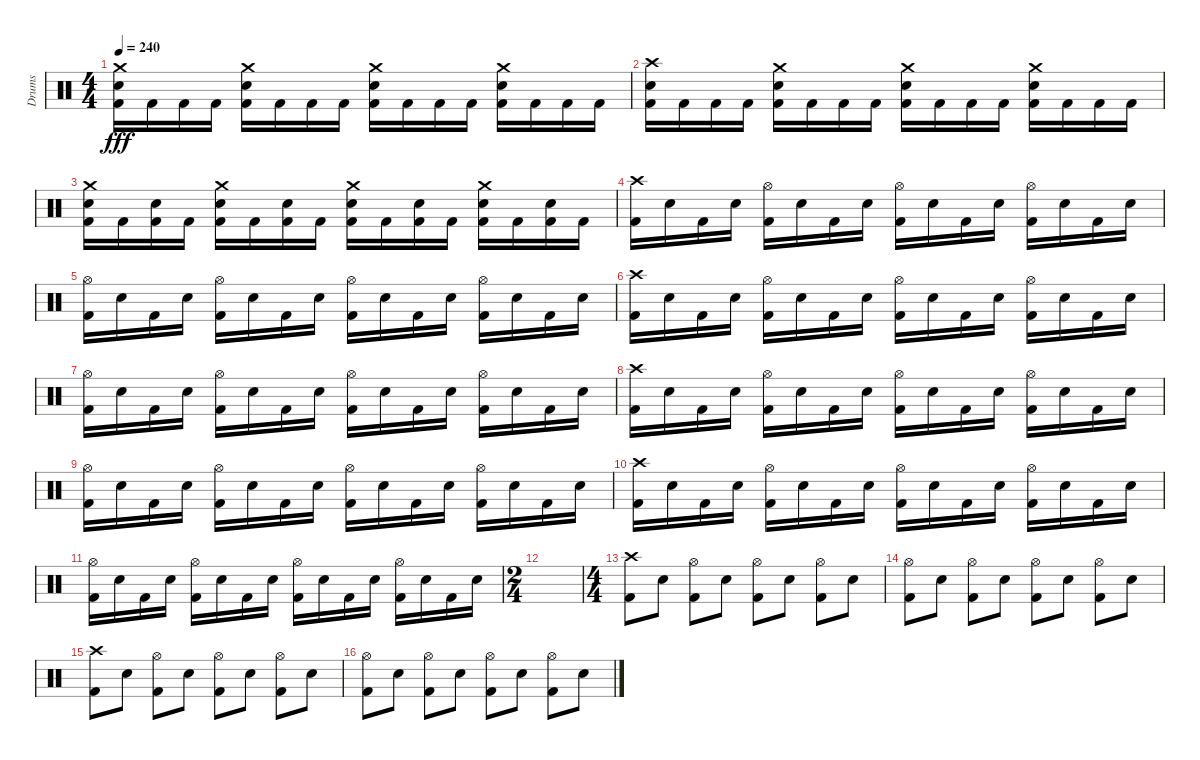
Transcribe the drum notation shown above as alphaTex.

\track ("Drums" "Drums") {instrument percussion}
\staff {score}
\articulation defaults
\ts (4 4)
\tempo 240
\clef neutral
\ks c
("Crash medium (hit)" "Electric Snare (hit)" "Kick (hit) 2").16{dy fff} "Kick (hit) 2".16 "Kick (hit) 2".16 "Kick (hit) 2".16 ("Crash medium (hit)" "Electric Snare (hit)" "Kick (hit) 2").16 "Kick (hit) 2".16 "Kick (hit) 2".16 "Kick (hit) 2".16 ("Crash medium (hit)" "Electric Snare (hit)" "Kick (hit) 2").16 "Kick (hit) 2".16 "Kick (hit) 2".16 "Kick (hit) 2".16 ("Crash medium (hit)" "Electric Snare (hit)" "Kick (hit) 2").16 "Kick (hit) 2".16 "Kick (hit) 2".16 "Kick (hit) 2".16 |
("Crash high (hit)" "Electric Snare (hit)" "Kick (hit) 2").16 "Kick (hit) 2".16 "Kick (hit) 2".16 "Kick (hit) 2".16 ("Crash medium (hit)" "Electric Snare (hit)" "Kick (hit) 2").16 "Kick (hit) 2".16 "Kick (hit) 2".16 "Kick (hit) 2".16 ("Crash medium (hit)" "Electric Snare (hit)" "Kick (hit) 2").16 "Kick (hit) 2".16 "Kick (hit) 2".16 "Kick (hit) 2".16 ("Crash medium (hit)" "Electric Snare (hit)" "Kick (hit) 2").16 "Kick (hit) 2".16 "Kick (hit) 2".16 "Kick (hit) 2".16 |
("Crash medium (hit)" "Electric Snare (hit)" "Kick (hit) 2").16 "Kick (hit) 2".16 ("Electric Snare (hit)" "Kick (hit) 2").16 "Kick (hit) 2".16 ("Crash medium (hit)" "Electric Snare (hit)" "Kick (hit) 2").16 "Kick (hit) 2".16 ("Electric Snare (hit)" "Kick (hit) 2").16 "Kick (hit) 2".16 ("Crash medium (hit)" "Electric Snare (hit)" "Kick (hit) 2").16 "Kick (hit) 2".16 ("Electric Snare (hit)" "Kick (hit) 2").16 "Kick (hit) 2".16 ("Crash medium (hit)" "Electric Snare (hit)" "Kick (hit) 2").16 "Kick (hit) 2".16 ("Electric Snare (hit)" "Kick (hit) 2").16 "Kick (hit) 2".16 |
("Crash high (hit)" "Kick (hit) 2").16 "Electric Snare (hit)".16 "Kick (hit) 2".16 "Electric Snare (hit)".16 ("Hi-Hat (open)" "Kick (hit) 2").16 "Electric Snare (hit)".16 "Kick (hit) 2".16 "Electric Snare (hit)".16 ("Hi-Hat (open)" "Kick (hit) 2").16 "Electric Snare (hit)".16 "Kick (hit) 2".16 "Electric Snare (hit)".16 ("Hi-Hat (open)" "Kick (hit) 2").16 "Electric Snare (hit)".16 "Kick (hit) 2".16 "Electric Snare (hit)".16 |
("Hi-Hat (open)" "Kick (hit) 2").16 "Electric Snare (hit)".16 "Kick (hit) 2".16 "Electric Snare (hit)".16 ("Hi-Hat (open)" "Kick (hit) 2").16 "Electric Snare (hit)".16 "Kick (hit) 2".16 "Electric Snare (hit)".16 ("Hi-Hat (open)" "Kick (hit) 2").16 "Electric Snare (hit)".16 "Kick (hit) 2".16 "Electric Snare (hit)".16 ("Hi-Hat (open)" "Kick (hit) 2").16 "Electric Snare (hit)".16 "Kick (hit) 2".16 "Electric Snare (hit)".16 |
("Crash high (hit)" "Kick (hit) 2").16 "Electric Snare (hit)".16 "Kick (hit) 2".16 "Electric Snare (hit)".16 ("Hi-Hat (open)" "Kick (hit) 2").16 "Electric Snare (hit)".16 "Kick (hit) 2".16 "Electric Snare (hit)".16 ("Hi-Hat (open)" "Kick (hit) 2").16 "Electric Snare (hit)".16 "Kick (hit) 2".16 "Electric Snare (hit)".16 ("Hi-Hat (open)" "Kick (hit) 2").16 "Electric Snare (hit)".16 "Kick (hit) 2".16 "Electric Snare (hit)".16 |
("Hi-Hat (open)" "Kick (hit) 2").16 "Electric Snare (hit)".16 "Kick (hit) 2".16 "Electric Snare (hit)".16 ("Hi-Hat (open)" "Kick (hit) 2").16 "Electric Snare (hit)".16 "Kick (hit) 2".16 "Electric Snare (hit)".16 ("Hi-Hat (open)" "Kick (hit) 2").16 "Electric Snare (hit)".16 "Kick (hit) 2".16 "Electric Snare (hit)".16 ("Hi-Hat (open)" "Kick (hit) 2").16 "Electric Snare (hit)".16 "Kick (hit) 2".16 "Electric Snare (hit)".16 |
("Crash high (hit)" "Kick (hit) 2").16 "Electric Snare (hit)".16 "Kick (hit) 2".16 "Electric Snare (hit)".16 ("Hi-Hat (open)" "Kick (hit) 2").16 "Electric Snare (hit)".16 "Kick (hit) 2".16 "Electric Snare (hit)".16 ("Hi-Hat (open)" "Kick (hit) 2").16 "Electric Snare (hit)".16 "Kick (hit) 2".16 "Electric Snare (hit)".16 ("Hi-Hat (open)" "Kick (hit) 2").16 "Electric Snare (hit)".16 "Kick (hit) 2".16 "Electric Snare (hit)".16 |
("Hi-Hat (open)" "Kick (hit) 2").16 "Electric Snare (hit)".16 "Kick (hit) 2".16 "Electric Snare (hit)".16 ("Hi-Hat (open)" "Kick (hit) 2").16 "Electric Snare (hit)".16 "Kick (hit) 2".16 "Electric Snare (hit)".16 ("Hi-Hat (open)" "Kick (hit) 2").16 "Electric Snare (hit)".16 "Kick (hit) 2".16 "Electric Snare (hit)".16 ("Hi-Hat (open)" "Kick (hit) 2").16 "Electric Snare (hit)".16 "Kick (hit) 2".16 "Electric Snare (hit)".16 |
("Crash high (hit)" "Kick (hit) 2").16 "Electric Snare (hit)".16 "Kick (hit) 2".16 "Electric Snare (hit)".16 ("Hi-Hat (open)" "Kick (hit) 2").16 "Electric Snare (hit)".16 "Kick (hit) 2".16 "Electric Snare (hit)".16 ("Hi-Hat (open)" "Kick (hit) 2").16 "Electric Snare (hit)".16 "Kick (hit) 2".16 "Electric Snare (hit)".16 ("Hi-Hat (open)" "Kick (hit) 2").16 "Electric Snare (hit)".16 "Kick (hit) 2".16 "Electric Snare (hit)".16 |
("Hi-Hat (open)" "Kick (hit) 2").16 "Electric Snare (hit)".16 "Kick (hit) 2".16 "Electric Snare (hit)".16 ("Hi-Hat (open)" "Kick (hit) 2").16 "Electric Snare (hit)".16 "Kick (hit) 2".16 "Electric Snare (hit)".16 ("Hi-Hat (open)" "Kick (hit) 2").16 "Electric Snare (hit)".16 "Kick (hit) 2".16 "Electric Snare (hit)".16 ("Hi-Hat (open)" "Kick (hit) 2").16 "Electric Snare (hit)".16 "Kick (hit) 2".16 "Electric Snare (hit)".16 |
\ts (2 4)
|
\ts (4 4)
("Crash high (hit)" "Kick (hit) 2").8 "Electric Snare (hit)".8 ("Hi-Hat (open)" "Kick (hit) 2").8 "Electric Snare (hit)".8 ("Hi-Hat (open)" "Kick (hit) 2").8 "Electric Snare (hit)".8 ("Hi-Hat (open)" "Kick (hit) 2").8 "Electric Snare (hit)".8 |
("Hi-Hat (open)" "Kick (hit) 2").8 "Electric Snare (hit)".8 ("Hi-Hat (open)" "Kick (hit) 2").8 "Electric Snare (hit)".8 ("Hi-Hat (open)" "Kick (hit) 2").8 "Electric Snare (hit)".8 ("Hi-Hat (open)" "Kick (hit) 2").8 "Electric Snare (hit)".8 |
("Crash high (hit)" "Kick (hit) 2").8 "Electric Snare (hit)".8 ("Hi-Hat (open)" "Kick (hit) 2").8 "Electric Snare (hit)".8 ("Hi-Hat (open)" "Kick (hit) 2").8 "Electric Snare (hit)".8 ("Hi-Hat (open)" "Kick (hit) 2").8 "Electric Snare (hit)".8 |
("Hi-Hat (open)" "Kick (hit) 2").8 "Electric Snare (hit)".8 ("Hi-Hat (open)" "Kick (hit) 2").8 "Electric Snare (hit)".8 ("Hi-Hat (open)" "Kick (hit) 2").8 "Electric Snare (hit)".8 ("Hi-Hat (open)" "Kick (hit) 2").8 "Electric Snare (hit)".8
